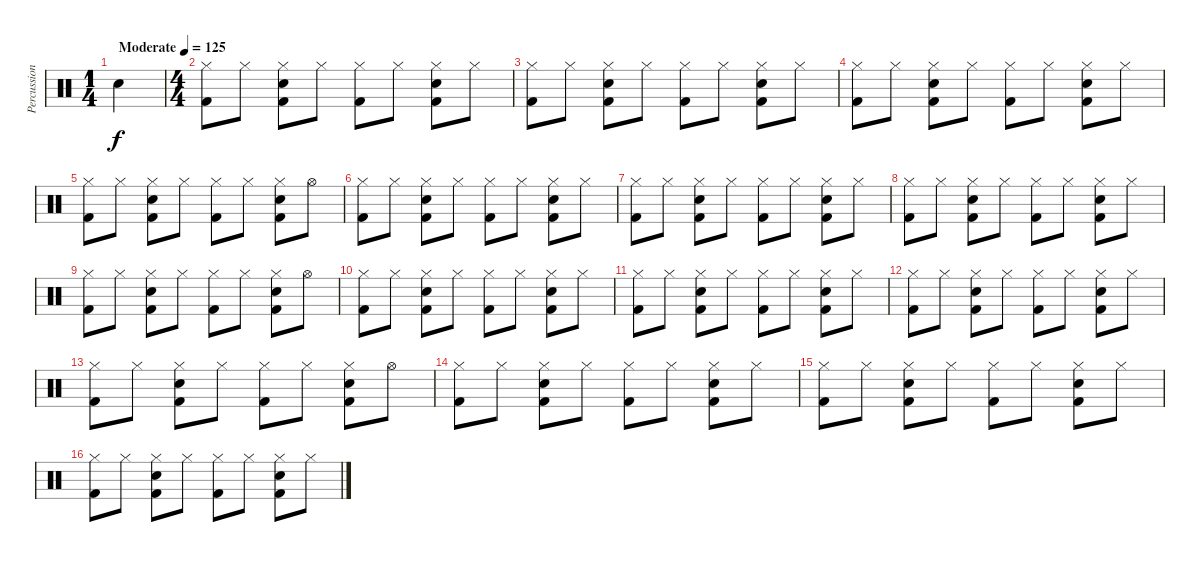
\track ("Percussion" "Percussion") {instrument percussion}
\staff {score}
\articulation defaults
\ts (1 4)
\tempo (125 "Moderate")
\clef neutral
\ks c "Electric Snare (hit)".4{dy f}
|
\ts (4 4)
("Hi-Hat (closed)" "Kick (hit) 2").8 "Hi-Hat (closed)".8 ("Hi-Hat (closed)" "Electric Snare (hit)" "Kick (hit) 2").8 "Hi-Hat (closed)".8 ("Hi-Hat (closed)" "Kick (hit) 2").8 "Hi-Hat (closed)".8 ("Hi-Hat (closed)" "Electric Snare (hit)" "Kick (hit) 2").8 "Hi-Hat (closed)".8 |
("Hi-Hat (closed)" "Kick (hit) 2").8 "Hi-Hat (closed)".8 ("Hi-Hat (closed)" "Electric Snare (hit)" "Kick (hit) 2").8 "Hi-Hat (closed)".8 ("Hi-Hat (closed)" "Kick (hit) 2").8 "Hi-Hat (closed)".8 ("Hi-Hat (closed)" "Electric Snare (hit)" "Kick (hit) 2").8 "Hi-Hat (closed)".8 |
("Hi-Hat (closed)" "Kick (hit) 2").8 "Hi-Hat (closed)".8 ("Hi-Hat (closed)" "Electric Snare (hit)" "Kick (hit) 2").8 "Hi-Hat (closed)".8 ("Hi-Hat (closed)" "Kick (hit) 2").8 "Hi-Hat (closed)".8 ("Hi-Hat (closed)" "Electric Snare (hit)" "Kick (hit) 2").8 "Hi-Hat (closed)".8 |
("Hi-Hat (closed)" "Kick (hit) 2").8 "Hi-Hat (closed)".8 ("Hi-Hat (closed)" "Electric Snare (hit)" "Kick (hit) 2").8 "Hi-Hat (closed)".8 ("Hi-Hat (closed)" "Kick (hit) 2").8 "Hi-Hat (closed)".8 ("Hi-Hat (closed)" "Electric Snare (hit)" "Kick (hit) 2").8 "Hi-Hat (open)".8 |
("Hi-Hat (closed)" "Kick (hit) 2").8 "Hi-Hat (closed)".8 ("Hi-Hat (closed)" "Electric Snare (hit)" "Kick (hit) 2").8 "Hi-Hat (closed)".8 ("Hi-Hat (closed)" "Kick (hit) 2").8 "Hi-Hat (closed)".8 ("Hi-Hat (closed)" "Electric Snare (hit)" "Kick (hit) 2").8 "Hi-Hat (closed)".8 |
("Hi-Hat (closed)" "Kick (hit) 2").8 "Hi-Hat (closed)".8 ("Hi-Hat (closed)" "Electric Snare (hit)" "Kick (hit) 2").8 "Hi-Hat (closed)".8 ("Hi-Hat (closed)" "Kick (hit) 2").8 "Hi-Hat (closed)".8 ("Hi-Hat (closed)" "Electric Snare (hit)" "Kick (hit) 2").8 "Hi-Hat (closed)".8 |
("Hi-Hat (closed)" "Kick (hit) 2").8 "Hi-Hat (closed)".8 ("Hi-Hat (closed)" "Electric Snare (hit)" "Kick (hit) 2").8 "Hi-Hat (closed)".8 ("Hi-Hat (closed)" "Kick (hit) 2").8 "Hi-Hat (closed)".8 ("Hi-Hat (closed)" "Electric Snare (hit)" "Kick (hit) 2").8 "Hi-Hat (closed)".8 |
("Hi-Hat (closed)" "Kick (hit) 2").8 "Hi-Hat (closed)".8 ("Hi-Hat (closed)" "Electric Snare (hit)" "Kick (hit) 2").8 "Hi-Hat (closed)".8 ("Hi-Hat (closed)" "Kick (hit) 2").8 "Hi-Hat (closed)".8 ("Hi-Hat (closed)" "Electric Snare (hit)" "Kick (hit) 2").8 "Hi-Hat (open)".8 |
("Hi-Hat (closed)" "Kick (hit) 2").8 "Hi-Hat (closed)".8 ("Hi-Hat (closed)" "Electric Snare (hit)" "Kick (hit) 2").8 "Hi-Hat (closed)".8 ("Hi-Hat (closed)" "Kick (hit) 2").8 "Hi-Hat (closed)".8 ("Hi-Hat (closed)" "Electric Snare (hit)" "Kick (hit) 2").8 "Hi-Hat (closed)".8 |
("Hi-Hat (closed)" "Kick (hit) 2").8 "Hi-Hat (closed)".8 ("Hi-Hat (closed)" "Electric Snare (hit)" "Kick (hit) 2").8 "Hi-Hat (closed)".8 ("Hi-Hat (closed)" "Kick (hit) 2").8 "Hi-Hat (closed)".8 ("Hi-Hat (closed)" "Electric Snare (hit)" "Kick (hit) 2").8 "Hi-Hat (closed)".8 |
("Hi-Hat (closed)" "Kick (hit) 2").8 "Hi-Hat (closed)".8 ("Hi-Hat (closed)" "Electric Snare (hit)" "Kick (hit) 2").8 "Hi-Hat (closed)".8 ("Hi-Hat (closed)" "Kick (hit) 2").8 "Hi-Hat (closed)".8 ("Hi-Hat (closed)" "Electric Snare (hit)" "Kick (hit) 2").8 "Hi-Hat (closed)".8 |
("Hi-Hat (closed)" "Kick (hit) 2").8 "Hi-Hat (closed)".8 ("Hi-Hat (closed)" "Electric Snare (hit)" "Kick (hit) 2").8 "Hi-Hat (closed)".8 ("Hi-Hat (closed)" "Kick (hit) 2").8 "Hi-Hat (closed)".8 ("Hi-Hat (closed)" "Electric Snare (hit)" "Kick (hit) 2").8 "Hi-Hat (open)".8 |
("Hi-Hat (closed)" "Kick (hit) 2").8 "Hi-Hat (closed)".8 ("Hi-Hat (closed)" "Electric Snare (hit)" "Kick (hit) 2").8 "Hi-Hat (closed)".8 ("Hi-Hat (closed)" "Kick (hit) 2").8 "Hi-Hat (closed)".8 ("Hi-Hat (closed)" "Electric Snare (hit)" "Kick (hit) 2").8 "Hi-Hat (closed)".8 |
("Hi-Hat (closed)" "Kick (hit) 2").8 "Hi-Hat (closed)".8 ("Hi-Hat (closed)" "Electric Snare (hit)" "Kick (hit) 2").8 "Hi-Hat (closed)".8 ("Hi-Hat (closed)" "Kick (hit) 2").8 "Hi-Hat (closed)".8 ("Hi-Hat (closed)" "Electric Snare (hit)" "Kick (hit) 2").8 "Hi-Hat (closed)".8 |
("Hi-Hat (closed)" "Kick (hit) 2").8 "Hi-Hat (closed)".8 ("Hi-Hat (closed)" "Electric Snare (hit)" "Kick (hit) 2").8 "Hi-Hat (closed)".8 ("Hi-Hat (closed)" "Kick (hit) 2").8 "Hi-Hat (closed)".8 ("Hi-Hat (closed)" "Electric Snare (hit)" "Kick (hit) 2").8 "Hi-Hat (closed)".8
